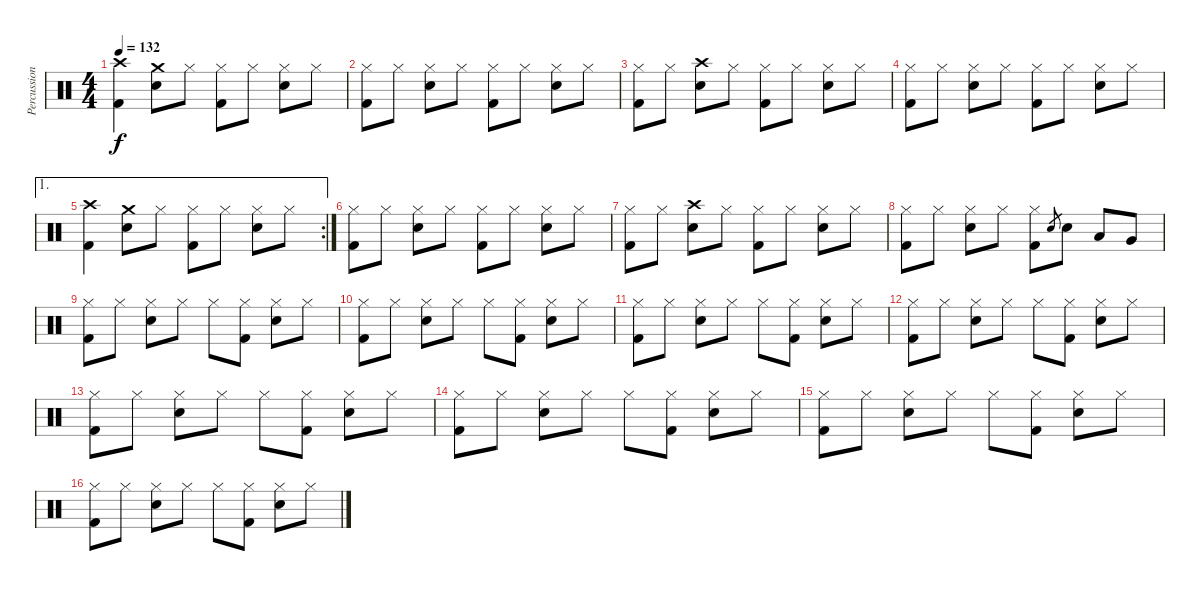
\track ("Percussion" "Percussion") {instrument percussion}
\staff {score}
\articulation defaults
\ts (4 4)
\tempo 132
\clef neutral
\ks c
("Crash high (hit)" "Kick (hit) 2").4{dy f} ("Crash medium (hit)" "Snare (hit) 2").8 "Hi-Hat (closed)".8 ("Hi-Hat (closed)" "Kick (hit) 2").8 "Hi-Hat (closed)".8 ("Hi-Hat (closed)" "Snare (hit) 2").8 "Hi-Hat (closed)".8 |
("Hi-Hat (closed)" "Kick (hit) 2").8 "Hi-Hat (closed)".8 ("Hi-Hat (closed)" "Snare (hit) 2").8 "Hi-Hat (closed)".8 ("Hi-Hat (closed)" "Kick (hit) 2").8 "Hi-Hat (closed)".8 ("Hi-Hat (closed)" "Snare (hit) 2").8 "Hi-Hat (closed)".8 |
("Hi-Hat (closed)" "Kick (hit) 2").8 "Hi-Hat (closed)".8 ("Crash high (hit)" "Snare (hit) 2").8 "Hi-Hat (closed)".8 ("Hi-Hat (closed)" "Kick (hit) 2").8 "Hi-Hat (closed)".8 ("Hi-Hat (closed)" "Snare (hit) 2").8 "Hi-Hat (closed)".8 |
("Hi-Hat (closed)" "Kick (hit) 2").8 "Hi-Hat (closed)".8 ("Hi-Hat (closed)" "Snare (hit) 2").8 "Hi-Hat (closed)".8 ("Hi-Hat (closed)" "Kick (hit) 2").8 "Hi-Hat (closed)".8 ("Hi-Hat (closed)" "Snare (hit) 2").8 "Hi-Hat (closed)".8 |
\ae 1
\rc 2
("Crash high (hit)" "Kick (hit) 2").4 ("Crash medium (hit)" "Snare (hit) 2").8 "Hi-Hat (closed)".8 ("Hi-Hat (closed)" "Kick (hit) 2").8 "Hi-Hat (closed)".8 ("Hi-Hat (closed)" "Snare (hit) 2").8 "Hi-Hat (closed)".8 |
("Hi-Hat (closed)" "Kick (hit) 2").8 "Hi-Hat (closed)".8 ("Hi-Hat (closed)" "Snare (hit) 2").8 "Hi-Hat (closed)".8 ("Hi-Hat (closed)" "Kick (hit) 2").8 "Hi-Hat (closed)".8 ("Hi-Hat (closed)" "Snare (hit) 2").8 "Hi-Hat (closed)".8 |
("Hi-Hat (closed)" "Kick (hit) 2").8 "Hi-Hat (closed)".8 ("Crash high (hit)" "Snare (hit) 2").8 "Hi-Hat (closed)".8 ("Hi-Hat (closed)" "Kick (hit) 2").8 "Hi-Hat (closed)".8 ("Hi-Hat (closed)" "Snare (hit) 2").8 "Hi-Hat (closed)".8 |
("Hi-Hat (closed)" "Kick (hit) 2").8 "Hi-Hat (closed)".8 ("Hi-Hat (closed)" "Snare (hit) 2").8 "Hi-Hat (closed)".8 ("Hi-Hat (closed)" "Kick (hit) 2").8 "Snare (hit) 2".8{gr} "Snare (hit) 2".8 "Low Tom (hit)".8 "Very Low Tom (hit)".8 |
("Hi-Hat (closed)" "Kick (hit) 2").8 "Hi-Hat (closed)".8 ("Hi-Hat (closed)" "Snare (hit) 2").8 "Hi-Hat (closed)".8 "Hi-Hat (closed)".8 ("Hi-Hat (closed)" "Kick (hit) 2").8 ("Hi-Hat (closed)" "Snare (hit) 2").8 "Hi-Hat (closed)".8 |
("Hi-Hat (closed)" "Kick (hit) 2").8 "Hi-Hat (closed)".8 ("Hi-Hat (closed)" "Snare (hit) 2").8 "Hi-Hat (closed)".8 "Hi-Hat (closed)".8 ("Hi-Hat (closed)" "Kick (hit) 2").8 ("Hi-Hat (closed)" "Snare (hit) 2").8 "Hi-Hat (closed)".8 |
("Hi-Hat (closed)" "Kick (hit) 2").8 "Hi-Hat (closed)".8 ("Hi-Hat (closed)" "Snare (hit) 2").8 "Hi-Hat (closed)".8 "Hi-Hat (closed)".8 ("Hi-Hat (closed)" "Kick (hit) 2").8 ("Hi-Hat (closed)" "Snare (hit) 2").8 "Hi-Hat (closed)".8 |
("Hi-Hat (closed)" "Kick (hit) 2").8 "Hi-Hat (closed)".8 ("Hi-Hat (closed)" "Snare (hit) 2").8 "Hi-Hat (closed)".8 "Hi-Hat (closed)".8 ("Hi-Hat (closed)" "Kick (hit) 2").8 ("Hi-Hat (closed)" "Snare (hit) 2").8 "Hi-Hat (closed)".8 |
("Hi-Hat (closed)" "Kick (hit) 2").8 "Hi-Hat (closed)".8 ("Hi-Hat (closed)" "Snare (hit) 2").8 "Hi-Hat (closed)".8 "Hi-Hat (closed)".8 ("Hi-Hat (closed)" "Kick (hit) 2").8 ("Hi-Hat (closed)" "Snare (hit) 2").8 "Hi-Hat (closed)".8 |
("Hi-Hat (closed)" "Kick (hit) 2").8 "Hi-Hat (closed)".8 ("Hi-Hat (closed)" "Snare (hit) 2").8 "Hi-Hat (closed)".8 "Hi-Hat (closed)".8 ("Hi-Hat (closed)" "Kick (hit) 2").8 ("Hi-Hat (closed)" "Snare (hit) 2").8 "Hi-Hat (closed)".8 |
("Hi-Hat (closed)" "Kick (hit) 2").8 "Hi-Hat (closed)".8 ("Hi-Hat (closed)" "Snare (hit) 2").8 "Hi-Hat (closed)".8 "Hi-Hat (closed)".8 ("Hi-Hat (closed)" "Kick (hit) 2").8 ("Hi-Hat (closed)" "Snare (hit) 2").8 "Hi-Hat (closed)".8 |
("Hi-Hat (closed)" "Kick (hit) 2").8 "Hi-Hat (closed)".8 ("Hi-Hat (closed)" "Snare (hit) 2").8 "Hi-Hat (closed)".8 "Hi-Hat (closed)".8 ("Hi-Hat (closed)" "Kick (hit) 2").8 ("Hi-Hat (closed)" "Snare (hit) 2").8 "Hi-Hat (closed)".8
